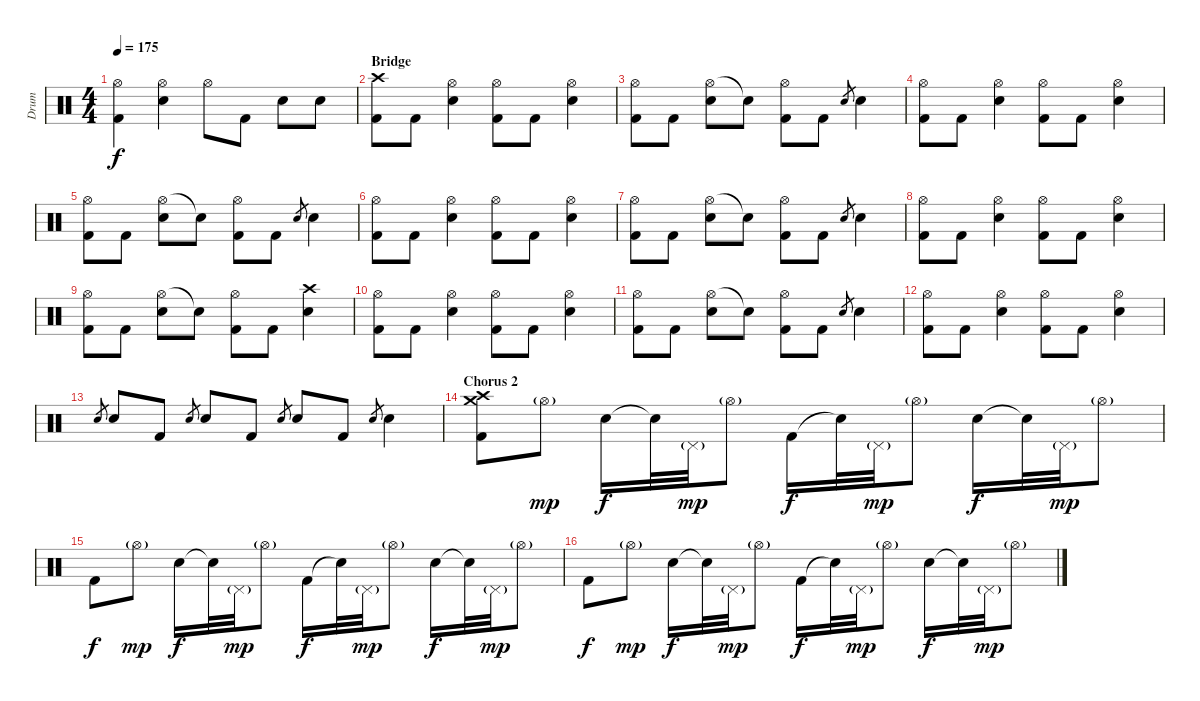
\track ("Drum" "Drum") {instrument percussion}
\staff {score}
\articulation defaults
\ts (4 4)
\tempo 175
\clef neutral
\ks c
("Hi-Hat (open)" "Kick (hit) 2").4{dy f} ("Hi-Hat (open)" "Electric Snare (hit)").4 "Hi-Hat (open)".8 "Kick (hit) 2".8 "Electric Snare (hit)".8 "Electric Snare (hit)".8 |
\section ("" "Bridge ")
("Kick (hit) 2" "Crash high (hit)").8 "Kick (hit) 2".8 ("Hi-Hat (open)" "Electric Snare (hit)").4 ("Hi-Hat (open)" "Kick (hit) 2").8 "Kick (hit) 2".8 ("Hi-Hat (open)" "Electric Snare (hit)").4 |
("Hi-Hat (open)" "Kick (hit) 2").8 "Kick (hit) 2".8 ("Hi-Hat (open)" "Electric Snare (hit)").8 "Snare (hit)"{t}.8 ("Hi-Hat (open)" "Kick (hit) 2").8 "Kick (hit) 2".8 "Electric Snare (hit)".8{gr} "Electric Snare (hit)".4 |
("Hi-Hat (open)" "Kick (hit) 2").8 "Kick (hit) 2".8 ("Hi-Hat (open)" "Electric Snare (hit)").4 ("Hi-Hat (open)" "Kick (hit) 2").8 "Kick (hit) 2".8 ("Hi-Hat (open)" "Electric Snare (hit)").4 |
("Hi-Hat (open)" "Kick (hit) 2").8 "Kick (hit) 2".8 ("Hi-Hat (open)" "Electric Snare (hit)").8 "Snare (hit)"{t}.8 ("Hi-Hat (open)" "Kick (hit) 2").8 "Kick (hit) 2".8 "Electric Snare (hit)".8{gr} "Electric Snare (hit)".4 |
("Hi-Hat (open)" "Kick (hit) 2").8 "Kick (hit) 2".8 ("Hi-Hat (open)" "Electric Snare (hit)").4 ("Hi-Hat (open)" "Kick (hit) 2").8 "Kick (hit) 2".8 ("Hi-Hat (open)" "Electric Snare (hit)").4 |
("Hi-Hat (open)" "Kick (hit) 2").8 "Kick (hit) 2".8 ("Hi-Hat (open)" "Electric Snare (hit)").8 "Snare (hit)"{t}.8 ("Hi-Hat (open)" "Kick (hit) 2").8 "Kick (hit) 2".8 "Electric Snare (hit)".8{gr} "Electric Snare (hit)".4 |
("Hi-Hat (open)" "Kick (hit) 2").8 "Kick (hit) 2".8 ("Hi-Hat (open)" "Electric Snare (hit)").4 ("Hi-Hat (open)" "Kick (hit) 2").8 "Kick (hit) 2".8 ("Hi-Hat (open)" "Electric Snare (hit)").4 |
("Hi-Hat (open)" "Kick (hit) 2").8 "Kick (hit) 2".8 ("Hi-Hat (open)" "Electric Snare (hit)").8 "Snare (hit)"{t}.8 ("Hi-Hat (open)" "Kick (hit) 2").8 "Kick (hit) 2".8 ("Electric Snare (hit)" "Crash high (hit)").4 |
("Hi-Hat (open)" "Kick (hit) 2").8 "Kick (hit) 2".8 ("Hi-Hat (open)" "Electric Snare (hit)").4 ("Hi-Hat (open)" "Kick (hit) 2").8 "Kick (hit) 2".8 ("Hi-Hat (open)" "Electric Snare (hit)").4 |
("Hi-Hat (open)" "Kick (hit) 2").8 "Kick (hit) 2".8 ("Hi-Hat (open)" "Electric Snare (hit)").8 "Snare (hit)"{t}.8 ("Hi-Hat (open)" "Kick (hit) 2").8 "Kick (hit) 2".8 "Electric Snare (hit)".8{gr} "Electric Snare (hit)".4 |
("Hi-Hat (open)" "Kick (hit) 2").8 "Kick (hit) 2".8 ("Hi-Hat (open)" "Electric Snare (hit)").4 ("Hi-Hat (open)" "Kick (hit) 2").8 "Kick (hit) 2".8 ("Hi-Hat (open)" "Electric Snare (hit)").4 |
"Electric Snare (hit)".8{gr} "Electric Snare (hit)".8 "Kick (hit) 2".8 "Electric Snare (hit)".8{gr} "Electric Snare (hit)".8 "Kick (hit) 2".8 "Electric Snare (hit)".8{gr} "Electric Snare (hit)".8 "Kick (hit) 2".8 "Electric Snare (hit)".8{gr} "Electric Snare (hit)".4 |
\section ("" "Chorus 2")
("Kick (hit) 2" "Crash high (hit)" "Crash medium (hit)").8 "Hi-Hat (open)"{g}.8{dy mp} "Electric Snare (hit)".16{dy f} "Snare (hit)"{t}.32 "Pedal Hi-Hat (hit)"{g}.32{dy mp} "Hi-Hat (open)"{g}.8 "Kick (hit) 2".16{dy f} "Snare (hit)"{t}.32 "Pedal Hi-Hat (hit)"{g}.32{dy mp} "Hi-Hat (open)"{g}.8 "Electric Snare (hit)".16{dy f} "Snare (hit)"{t}.32 "Pedal Hi-Hat (hit)"{g}.32{dy mp} "Hi-Hat (open)"{g}.8 |
"Kick (hit) 2".8{dy f} "Hi-Hat (open)"{g}.8{dy mp} "Electric Snare (hit)".16{dy f} "Snare (hit)"{t}.32 "Pedal Hi-Hat (hit)"{g}.32{dy mp} "Hi-Hat (open)"{g}.8 "Kick (hit) 2".16{dy f} "Snare (hit)"{t}.32 "Pedal Hi-Hat (hit)"{g}.32{dy mp} "Hi-Hat (open)"{g}.8 "Electric Snare (hit)".16{dy f} "Snare (hit)"{t}.32 "Pedal Hi-Hat (hit)"{g}.32{dy mp} "Hi-Hat (open)"{g}.8 |
"Kick (hit) 2".8{dy f} "Hi-Hat (open)"{g}.8{dy mp} "Electric Snare (hit)".16{dy f} "Snare (hit)"{t}.32 "Pedal Hi-Hat (hit)"{g}.32{dy mp} "Hi-Hat (open)"{g}.8 "Kick (hit) 2".16{dy f} "Snare (hit)"{t}.32 "Pedal Hi-Hat (hit)"{g}.32{dy mp} "Hi-Hat (open)"{g}.8 "Electric Snare (hit)".16{dy f} "Snare (hit)"{t}.32 "Pedal Hi-Hat (hit)"{g}.32{dy mp} "Hi-Hat (open)"{g}.8
